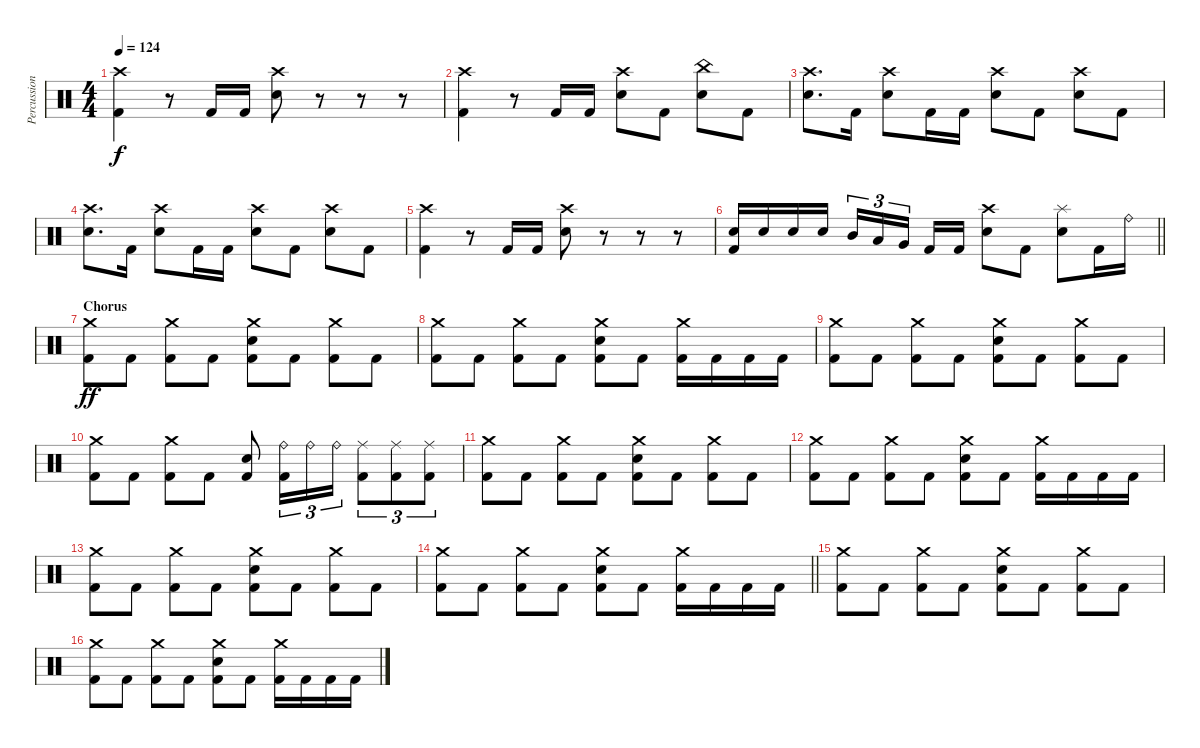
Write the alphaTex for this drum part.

\track ("Percussion" "Percussion") {instrument percussion}
\staff {score}
\articulation defaults
\ts (4 4)
\tempo 124
\clef neutral
\ks c
("Crash high (hit)" "Kick (hit) 2").4{dy f} r.8 "Kick (hit) 2".16 "Kick (hit) 2".16 ("Crash high (hit)" "Electric Snare (hit)").8 r.8 r.8 r.8 |
("Crash high (hit)" "Kick (hit) 2").4 r.8 "Kick (hit) 2".16 "Kick (hit) 2".16 ("Crash high (hit)" "Electric Snare (hit)").8 "Kick (hit) 2".8 ("China (hit)" "Electric Snare (hit)").8 "Kick (hit) 2".8 |
("Crash high (hit)" "Electric Snare (hit)").8{d} "Kick (hit) 2".16 ("Crash high (hit)" "Electric Snare (hit)").8 "Kick (hit) 2".16 "Kick (hit) 2".16 ("Crash high (hit)" "Electric Snare (hit)").8 "Kick (hit) 2".8 ("Crash high (hit)" "Electric Snare (hit)").8 "Kick (hit) 2".8 |
("Crash high (hit)" "Electric Snare (hit)").8{d} "Kick (hit) 2".16 ("Crash high (hit)" "Electric Snare (hit)").8 "Kick (hit) 2".16 "Kick (hit) 2".16 ("Crash high (hit)" "Electric Snare (hit)").8 "Kick (hit) 2".8 ("Crash high (hit)" "Electric Snare (hit)").8 "Kick (hit) 2".8 |
("Crash high (hit)" "Kick (hit) 2").4 r.8 "Kick (hit) 2".16 "Kick (hit) 2".16 ("Crash high (hit)" "Electric Snare (hit)").8 r.8 r.8 r.8 |
\barLineRight lightlight
("Electric Snare (hit)" "Kick (hit) 2").16 "Electric Snare (hit)".16 "Electric Snare (hit)".16 "Electric Snare (hit)".16 "Mid Tom (hit)".16{tu (3 2)} "Low Tom (hit)".16{tu (3 2)} "Very Low Tom (hit)".16{tu (3 2) beam splitsecondary} "Kick (hit) 2".16 "Kick (hit) 2".16 ("Crash high (hit)" "Electric Snare (hit)").8 "Kick (hit) 2".8 ("Splash (hit)" "Electric Snare (hit)").8 "Kick (hit) 2".16 "Ride (bell)".16 |
\section ("" "Chorus")
("Crash medium (hit)" "Kick (hit) 2").8{dy ff} "Kick (hit) 2".8 ("Crash medium (hit)" "Kick (hit) 2").8 "Kick (hit) 2".8 ("Crash medium (hit)" "Electric Snare (hit)" "Kick (hit) 2").8 "Kick (hit) 2".8 ("Crash medium (hit)" "Kick (hit) 2").8 "Kick (hit) 2".8 |
("Crash medium (hit)" "Kick (hit) 2").8 "Kick (hit) 2".8 ("Crash medium (hit)" "Kick (hit) 2").8 "Kick (hit) 2".8 ("Crash medium (hit)" "Electric Snare (hit)" "Kick (hit) 2").8 "Kick (hit) 2".8 ("Crash medium (hit)" "Kick (hit) 2").16 "Kick (hit) 2".16 "Kick (hit) 2".16 "Kick (hit) 2".16 |
("Crash medium (hit)" "Kick (hit) 2").8 "Kick (hit) 2".8 ("Crash medium (hit)" "Kick (hit) 2").8 "Kick (hit) 2".8 ("Crash medium (hit)" "Electric Snare (hit)" "Kick (hit) 2").8 "Kick (hit) 2".8 ("Crash medium (hit)" "Kick (hit) 2").8 "Kick (hit) 2".8 |
("Crash medium (hit)" "Kick (hit) 2").8 "Kick (hit) 2".8 ("Crash medium (hit)" "Kick (hit) 2").8 "Kick (hit) 2".8 ("Electric Snare (hit)" "Kick (hit) 2").8 ("Ride (bell)" "Kick (hit) 2").16{tu (3 2)} "Ride (bell)".16{tu (3 2)} "Ride (bell)".16{tu (3 2)} ("Ride (middle)" "Kick (hit) 2").8{tu (3 2)} ("Ride (middle)" "Kick (hit) 2").8{tu (3 2)} ("Ride (middle)" "Kick (hit) 2").8{tu (3 2)} |
("Crash medium (hit)" "Kick (hit) 2").8 "Kick (hit) 2".8 ("Crash medium (hit)" "Kick (hit) 2").8 "Kick (hit) 2".8 ("Crash medium (hit)" "Electric Snare (hit)" "Kick (hit) 2").8 "Kick (hit) 2".8 ("Crash medium (hit)" "Kick (hit) 2").8 "Kick (hit) 2".8 |
("Crash medium (hit)" "Kick (hit) 2").8 "Kick (hit) 2".8 ("Crash medium (hit)" "Kick (hit) 2").8 "Kick (hit) 2".8 ("Crash medium (hit)" "Electric Snare (hit)" "Kick (hit) 2").8 "Kick (hit) 2".8 ("Crash medium (hit)" "Kick (hit) 2").16 "Kick (hit) 2".16 "Kick (hit) 2".16 "Kick (hit) 2".16 |
("Crash medium (hit)" "Kick (hit) 2").8 "Kick (hit) 2".8 ("Crash medium (hit)" "Kick (hit) 2").8 "Kick (hit) 2".8 ("Crash medium (hit)" "Electric Snare (hit)" "Kick (hit) 2").8 "Kick (hit) 2".8 ("Crash medium (hit)" "Kick (hit) 2").8 "Kick (hit) 2".8 |
\barLineRight lightlight
("Crash medium (hit)" "Kick (hit) 2").8 "Kick (hit) 2".8 ("Crash medium (hit)" "Kick (hit) 2").8 "Kick (hit) 2".8 ("Crash medium (hit)" "Electric Snare (hit)" "Kick (hit) 2").8 "Kick (hit) 2".8 ("Crash medium (hit)" "Kick (hit) 2").16 "Kick (hit) 2".16 "Kick (hit) 2".16 "Kick (hit) 2".16 |
("Crash medium (hit)" "Kick (hit) 2").8 "Kick (hit) 2".8 ("Crash medium (hit)" "Kick (hit) 2").8 "Kick (hit) 2".8 ("Crash medium (hit)" "Electric Snare (hit)" "Kick (hit) 2").8 "Kick (hit) 2".8 ("Crash medium (hit)" "Kick (hit) 2").8 "Kick (hit) 2".8 |
("Crash medium (hit)" "Kick (hit) 2").8 "Kick (hit) 2".8 ("Crash medium (hit)" "Kick (hit) 2").8 "Kick (hit) 2".8 ("Crash medium (hit)" "Electric Snare (hit)" "Kick (hit) 2").8 "Kick (hit) 2".8 ("Crash medium (hit)" "Kick (hit) 2").16 "Kick (hit) 2".16 "Kick (hit) 2".16 "Kick (hit) 2".16
